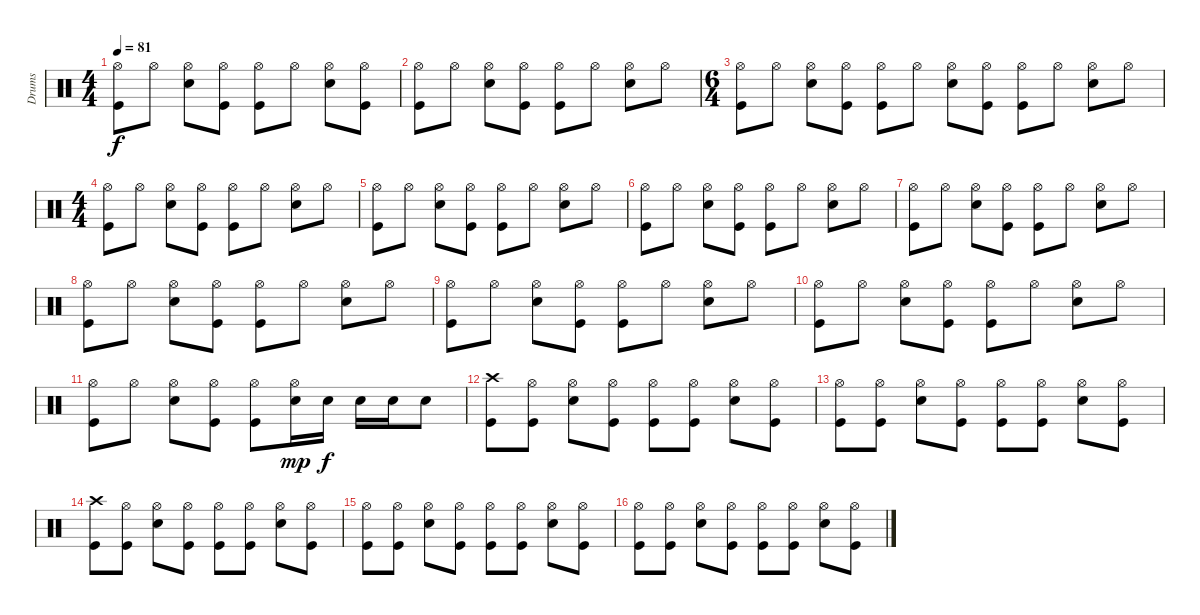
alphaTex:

\track ("Drums" "Drums") {instrument percussion}
\staff {score}
\articulation defaults
\ts (4 4)
\tempo 81
\clef neutral
\ks c
("Hi-Hat (open)" "Kick (hit)").8{dy f} "Hi-Hat (open)".8 ("Hi-Hat (open)" "Electric Snare (hit)").8 ("Hi-Hat (open)" "Kick (hit)").8 ("Hi-Hat (open)" "Kick (hit)").8 "Hi-Hat (open)".8 ("Hi-Hat (open)" "Electric Snare (hit)").8 ("Hi-Hat (open)" "Kick (hit)").8 |
("Hi-Hat (open)" "Kick (hit)").8 "Hi-Hat (open)".8 ("Hi-Hat (open)" "Electric Snare (hit)").8 ("Hi-Hat (open)" "Kick (hit)").8 ("Hi-Hat (open)" "Kick (hit)").8 "Hi-Hat (open)".8 ("Hi-Hat (open)" "Electric Snare (hit)").8 "Hi-Hat (open)".8 |
\ts (6 4)
("Hi-Hat (open)" "Kick (hit)").8 "Hi-Hat (open)".8 ("Hi-Hat (open)" "Electric Snare (hit)").8 ("Hi-Hat (open)" "Kick (hit)").8 ("Hi-Hat (open)" "Kick (hit)").8 "Hi-Hat (open)".8 ("Hi-Hat (open)" "Electric Snare (hit)").8 ("Hi-Hat (open)" "Kick (hit)").8 ("Hi-Hat (open)" "Kick (hit)").8 "Hi-Hat (open)".8 ("Hi-Hat (open)" "Electric Snare (hit)").8 "Hi-Hat (open)".8 |
\ts (4 4)
("Hi-Hat (open)" "Kick (hit)").8 "Hi-Hat (open)".8 ("Hi-Hat (open)" "Electric Snare (hit)").8 ("Hi-Hat (open)" "Kick (hit)").8 ("Hi-Hat (open)" "Kick (hit)").8 "Hi-Hat (open)".8 ("Hi-Hat (open)" "Electric Snare (hit)").8 "Hi-Hat (open)".8 |
("Hi-Hat (open)" "Kick (hit)").8 "Hi-Hat (open)".8 ("Hi-Hat (open)" "Electric Snare (hit)").8 ("Hi-Hat (open)" "Kick (hit)").8 ("Hi-Hat (open)" "Kick (hit)").8 "Hi-Hat (open)".8 ("Hi-Hat (open)" "Electric Snare (hit)").8 "Hi-Hat (open)".8 |
("Hi-Hat (open)" "Kick (hit)").8 "Hi-Hat (open)".8 ("Hi-Hat (open)" "Electric Snare (hit)").8 ("Hi-Hat (open)" "Kick (hit)").8 ("Hi-Hat (open)" "Kick (hit)").8 "Hi-Hat (open)".8 ("Hi-Hat (open)" "Electric Snare (hit)").8 "Hi-Hat (open)".8 |
("Hi-Hat (open)" "Kick (hit)").8 "Hi-Hat (open)".8 ("Hi-Hat (open)" "Electric Snare (hit)").8 ("Hi-Hat (open)" "Kick (hit)").8 ("Hi-Hat (open)" "Kick (hit)").8 "Hi-Hat (open)".8 ("Hi-Hat (open)" "Electric Snare (hit)").8 "Hi-Hat (open)".8 |
("Hi-Hat (open)" "Kick (hit)").8 "Hi-Hat (open)".8 ("Hi-Hat (open)" "Electric Snare (hit)").8 ("Hi-Hat (open)" "Kick (hit)").8 ("Hi-Hat (open)" "Kick (hit)").8 "Hi-Hat (open)".8 ("Hi-Hat (open)" "Electric Snare (hit)").8 "Hi-Hat (open)".8 |
("Hi-Hat (open)" "Kick (hit)").8 "Hi-Hat (open)".8 ("Hi-Hat (open)" "Electric Snare (hit)").8 ("Hi-Hat (open)" "Kick (hit)").8 ("Hi-Hat (open)" "Kick (hit)").8 "Hi-Hat (open)".8 ("Hi-Hat (open)" "Electric Snare (hit)").8 "Hi-Hat (open)".8 |
("Hi-Hat (open)" "Kick (hit)").8 "Hi-Hat (open)".8 ("Hi-Hat (open)" "Electric Snare (hit)").8 ("Hi-Hat (open)" "Kick (hit)").8 ("Hi-Hat (open)" "Kick (hit)").8 "Hi-Hat (open)".8 ("Hi-Hat (open)" "Electric Snare (hit)").8 "Hi-Hat (open)".8 |
("Hi-Hat (open)" "Kick (hit)").8 "Hi-Hat (open)".8 ("Hi-Hat (open)" "Electric Snare (hit)").8 ("Hi-Hat (open)" "Kick (hit)").8 ("Hi-Hat (open)" "Kick (hit)").8 ("Hi-Hat (open)" "Electric Snare (hit)").16{dy mp} "Electric Snare (hit)".16{dy f} "Electric Snare (hit)".16 "Electric Snare (hit)".16 "Electric Snare (hit)".8 |
("Crash high (hit)" "Kick (hit)").8 ("Hi-Hat (open)" "Kick (hit)").8 ("Hi-Hat (open)" "Electric Snare (hit)").8 ("Hi-Hat (open)" "Kick (hit)").8 ("Hi-Hat (open)" "Kick (hit)").8 ("Hi-Hat (open)" "Kick (hit)").8 ("Hi-Hat (open)" "Electric Snare (hit)").8 ("Hi-Hat (open)" "Kick (hit)").8 |
("Hi-Hat (open)" "Kick (hit)").8 ("Hi-Hat (open)" "Kick (hit)").8 ("Hi-Hat (open)" "Electric Snare (hit)").8 ("Hi-Hat (open)" "Kick (hit)").8 ("Hi-Hat (open)" "Kick (hit)").8 ("Hi-Hat (open)" "Kick (hit)").8 ("Hi-Hat (open)" "Electric Snare (hit)").8 ("Hi-Hat (open)" "Kick (hit)").8 |
("Crash high (hit)" "Kick (hit)").8 ("Hi-Hat (open)" "Kick (hit)").8 ("Hi-Hat (open)" "Electric Snare (hit)").8 ("Hi-Hat (open)" "Kick (hit)").8 ("Hi-Hat (open)" "Kick (hit)").8 ("Hi-Hat (open)" "Kick (hit)").8 ("Hi-Hat (open)" "Electric Snare (hit)").8 ("Hi-Hat (open)" "Kick (hit)").8 |
("Hi-Hat (open)" "Kick (hit)").8 ("Hi-Hat (open)" "Kick (hit)").8 ("Hi-Hat (open)" "Electric Snare (hit)").8 ("Hi-Hat (open)" "Kick (hit)").8 ("Hi-Hat (open)" "Kick (hit)").8 ("Hi-Hat (open)" "Kick (hit)").8 ("Hi-Hat (open)" "Electric Snare (hit)").8 ("Hi-Hat (open)" "Kick (hit)").8 |
("Hi-Hat (open)" "Kick (hit)").8 ("Hi-Hat (open)" "Kick (hit)").8 ("Hi-Hat (open)" "Electric Snare (hit)").8 ("Hi-Hat (open)" "Kick (hit)").8 ("Hi-Hat (open)" "Kick (hit)").8 ("Hi-Hat (open)" "Kick (hit)").8 ("Hi-Hat (open)" "Electric Snare (hit)").8 ("Hi-Hat (open)" "Kick (hit)").8
